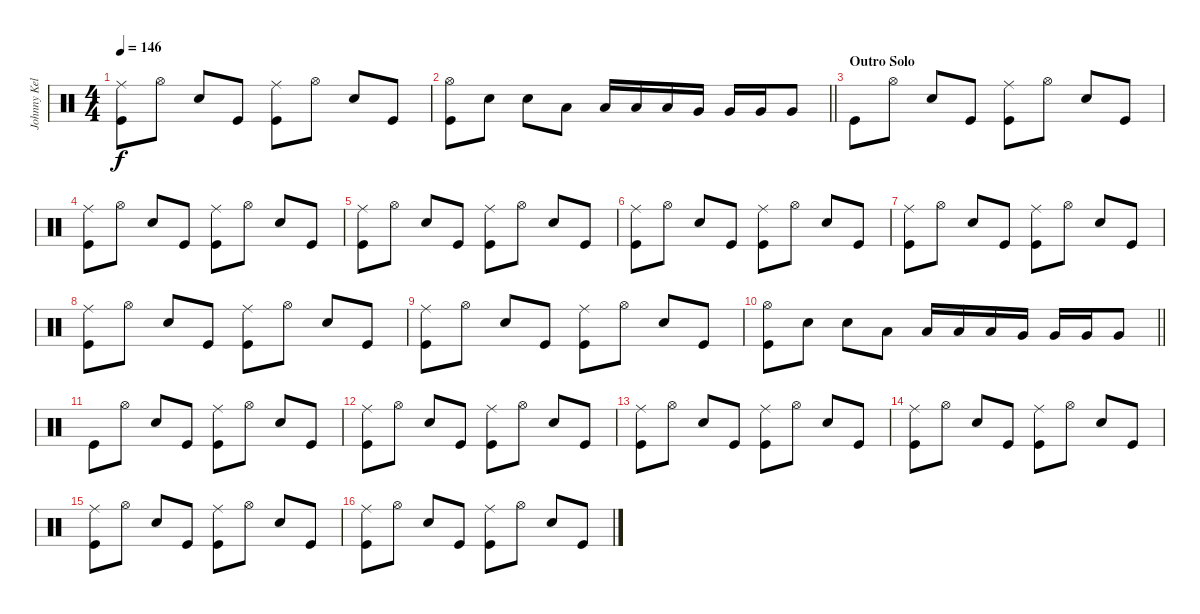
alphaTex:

\track ("Johnny Kelly" "Johnny Kel") {instrument percussion}
\staff {score}
\articulation defaults
\ts (4 4)
\tempo 146
\clef neutral
\ks c
("Kick (hit)" "Ride (middle)").8{dy f} "Hi-Hat (open)".8 "Snare (hit) 2".8 "Kick (hit)".8 ("Kick (hit)" "Ride (middle)").8 "Hi-Hat (open)".8 "Snare (hit) 2".8 "Kick (hit)".8 |
\barLineRight lightlight
("Kick (hit)" "Hi-Hat (open)").8 "Snare (hit) 2".8 "Snare (hit) 2".8 "Low Tom (hit)".8 "Low Tom (hit)".16 "Low Tom (hit)".16 "Low Tom (hit)".16 "Very Low Tom (hit)".16 "Very Low Tom (hit)".16 "Very Low Tom (hit)".16 "Very Low Tom (hit)".8 |
\section ("" "Outro Solo")
"Kick (hit)".8 "Hi-Hat (open)".8 "Snare (hit) 2".8 "Kick (hit)".8 ("Kick (hit)" "Ride (middle)").8 "Hi-Hat (open)".8 "Snare (hit) 2".8 "Kick (hit)".8 |
("Kick (hit)" "Ride (middle)").8 "Hi-Hat (open)".8 "Snare (hit) 2".8 "Kick (hit)".8 ("Kick (hit)" "Ride (middle)").8 "Hi-Hat (open)".8 "Snare (hit) 2".8 "Kick (hit)".8 |
("Kick (hit)" "Ride (middle)").8 "Hi-Hat (open)".8 "Snare (hit) 2".8 "Kick (hit)".8 ("Kick (hit)" "Ride (middle)").8 "Hi-Hat (open)".8 "Snare (hit) 2".8 "Kick (hit)".8 |
("Kick (hit)" "Ride (middle)").8 "Hi-Hat (open)".8 "Snare (hit) 2".8 "Kick (hit)".8 ("Kick (hit)" "Ride (middle)").8 "Hi-Hat (open)".8 "Snare (hit) 2".8 "Kick (hit)".8 |
("Kick (hit)" "Ride (middle)").8 "Hi-Hat (open)".8 "Snare (hit) 2".8 "Kick (hit)".8 ("Kick (hit)" "Ride (middle)").8 "Hi-Hat (open)".8 "Snare (hit) 2".8 "Kick (hit)".8 |
("Kick (hit)" "Ride (middle)").8 "Hi-Hat (open)".8 "Snare (hit) 2".8 "Kick (hit)".8 ("Kick (hit)" "Ride (middle)").8 "Hi-Hat (open)".8 "Snare (hit) 2".8 "Kick (hit)".8 |
("Kick (hit)" "Ride (middle)").8 "Hi-Hat (open)".8 "Snare (hit) 2".8 "Kick (hit)".8 ("Kick (hit)" "Ride (middle)").8 "Hi-Hat (open)".8 "Snare (hit) 2".8 "Kick (hit)".8 |
\barLineRight lightlight
("Kick (hit)" "Hi-Hat (open)").8 "Snare (hit) 2".8 "Snare (hit) 2".8 "Low Tom (hit)".8 "Low Tom (hit)".16 "Low Tom (hit)".16 "Low Tom (hit)".16 "Very Low Tom (hit)".16 "Very Low Tom (hit)".16 "Very Low Tom (hit)".16 "Very Low Tom (hit)".8 |
"Kick (hit)".8 "Hi-Hat (open)".8 "Snare (hit) 2".8 "Kick (hit)".8 ("Kick (hit)" "Ride (middle)").8 "Hi-Hat (open)".8 "Snare (hit) 2".8 "Kick (hit)".8 |
("Kick (hit)" "Ride (middle)").8 "Hi-Hat (open)".8 "Snare (hit) 2".8 "Kick (hit)".8 ("Kick (hit)" "Ride (middle)").8 "Hi-Hat (open)".8 "Snare (hit) 2".8 "Kick (hit)".8 |
("Kick (hit)" "Ride (middle)").8 "Hi-Hat (open)".8 "Snare (hit) 2".8 "Kick (hit)".8 ("Kick (hit)" "Ride (middle)").8 "Hi-Hat (open)".8 "Snare (hit) 2".8 "Kick (hit)".8 |
("Kick (hit)" "Ride (middle)").8 "Hi-Hat (open)".8 "Snare (hit) 2".8 "Kick (hit)".8 ("Kick (hit)" "Ride (middle)").8 "Hi-Hat (open)".8 "Snare (hit) 2".8 "Kick (hit)".8 |
("Kick (hit)" "Ride (middle)").8 "Hi-Hat (open)".8 "Snare (hit) 2".8 "Kick (hit)".8 ("Kick (hit)" "Ride (middle)").8 "Hi-Hat (open)".8 "Snare (hit) 2".8 "Kick (hit)".8 |
("Kick (hit)" "Ride (middle)").8 "Hi-Hat (open)".8 "Snare (hit) 2".8 "Kick (hit)".8 ("Kick (hit)" "Ride (middle)").8 "Hi-Hat (open)".8 "Snare (hit) 2".8 "Kick (hit)".8
